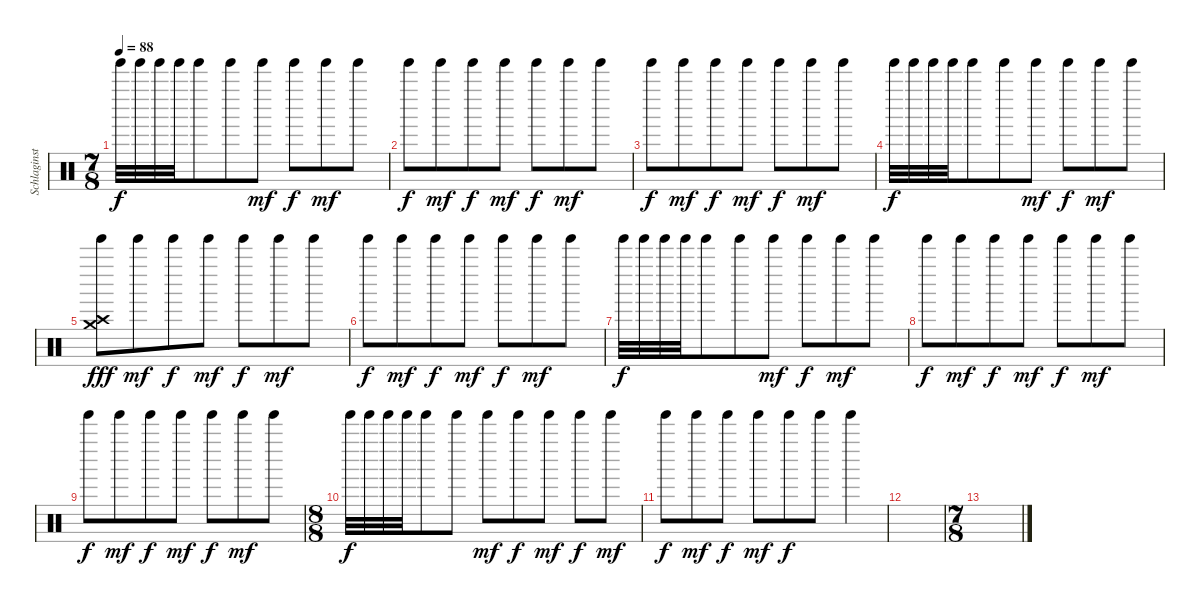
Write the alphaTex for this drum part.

\track ("Schlaginstrumente - Auswahl" "Schlaginst") {instrument percussion}
\staff {score}
\articulation defaults
\ts (7 8)
\tempo 88
\clef neutral
\ks c "Tinkle Bell (hit)".32{dy f} "Tinkle Bell (hit)".32 "Tinkle Bell (hit)".32 "Tinkle Bell (hit)".32 "Tinkle Bell (hit)".8 "Tinkle Bell (hit)".8 "Tinkle Bell (hit)".8{dy mf} "Tinkle Bell (hit)".8{dy f} "Tinkle Bell (hit)".8{dy mf} "Tinkle Bell (hit)".8
|
"Tinkle Bell (hit)".8{dy f} "Tinkle Bell (hit)".8{dy mf} "Tinkle Bell (hit)".8{dy f} "Tinkle Bell (hit)".8{dy mf} "Tinkle Bell (hit)".8{dy f} "Tinkle Bell (hit)".8{dy mf} "Tinkle Bell (hit)".8 |
"Tinkle Bell (hit)".8{dy f} "Tinkle Bell (hit)".8{dy mf} "Tinkle Bell (hit)".8{dy f} "Tinkle Bell (hit)".8{dy mf} "Tinkle Bell (hit)".8{dy f} "Tinkle Bell (hit)".8{dy mf} "Tinkle Bell (hit)".8 |
"Tinkle Bell (hit)".32{dy f} "Tinkle Bell (hit)".32 "Tinkle Bell (hit)".32 "Tinkle Bell (hit)".32 "Tinkle Bell (hit)".8 "Tinkle Bell (hit)".8 "Tinkle Bell (hit)".8{dy mf} "Tinkle Bell (hit)".8{dy f} "Tinkle Bell (hit)".8{dy mf} "Tinkle Bell (hit)".8 |
("Tinkle Bell (hit)" "Crash high (hit)" "Crash medium (hit)").8{dy fff} "Tinkle Bell (hit)".8{dy mf} "Tinkle Bell (hit)".8{dy f} "Tinkle Bell (hit)".8{dy mf} "Tinkle Bell (hit)".8{dy f} "Tinkle Bell (hit)".8{dy mf} "Tinkle Bell (hit)".8 |
"Tinkle Bell (hit)".8{dy f} "Tinkle Bell (hit)".8{dy mf} "Tinkle Bell (hit)".8{dy f} "Tinkle Bell (hit)".8{dy mf} "Tinkle Bell (hit)".8{dy f} "Tinkle Bell (hit)".8{dy mf} "Tinkle Bell (hit)".8 |
"Tinkle Bell (hit)".32{dy f} "Tinkle Bell (hit)".32 "Tinkle Bell (hit)".32 "Tinkle Bell (hit)".32 "Tinkle Bell (hit)".8 "Tinkle Bell (hit)".8 "Tinkle Bell (hit)".8{dy mf} "Tinkle Bell (hit)".8{dy f} "Tinkle Bell (hit)".8{dy mf} "Tinkle Bell (hit)".8 |
"Tinkle Bell (hit)".8{dy f} "Tinkle Bell (hit)".8{dy mf} "Tinkle Bell (hit)".8{dy f} "Tinkle Bell (hit)".8{dy mf} "Tinkle Bell (hit)".8{dy f} "Tinkle Bell (hit)".8{dy mf} "Tinkle Bell (hit)".8 |
"Tinkle Bell (hit)".8{dy f} "Tinkle Bell (hit)".8{dy mf} "Tinkle Bell (hit)".8{dy f} "Tinkle Bell (hit)".8{dy mf} "Tinkle Bell (hit)".8{dy f} "Tinkle Bell (hit)".8{dy mf} "Tinkle Bell (hit)".8 |
\ts (8 8)
"Tinkle Bell (hit)".32{dy f} "Tinkle Bell (hit)".32 "Tinkle Bell (hit)".32 "Tinkle Bell (hit)".32 "Tinkle Bell (hit)".8 "Tinkle Bell (hit)".8 "Tinkle Bell (hit)".8{dy mf} "Tinkle Bell (hit)".8{dy f} "Tinkle Bell (hit)".8{dy mf} "Tinkle Bell (hit)".8{dy f} "Tinkle Bell (hit)".8{dy mf} |
"Tinkle Bell (hit)".8{dy f} "Tinkle Bell (hit)".8{dy mf} "Tinkle Bell (hit)".8{dy f} "Tinkle Bell (hit)".8{dy mf} "Tinkle Bell (hit)".8{dy f} "Tinkle Bell (hit)".8 "Tinkle Bell (hit)".4 |
|
\ts (7 8)
